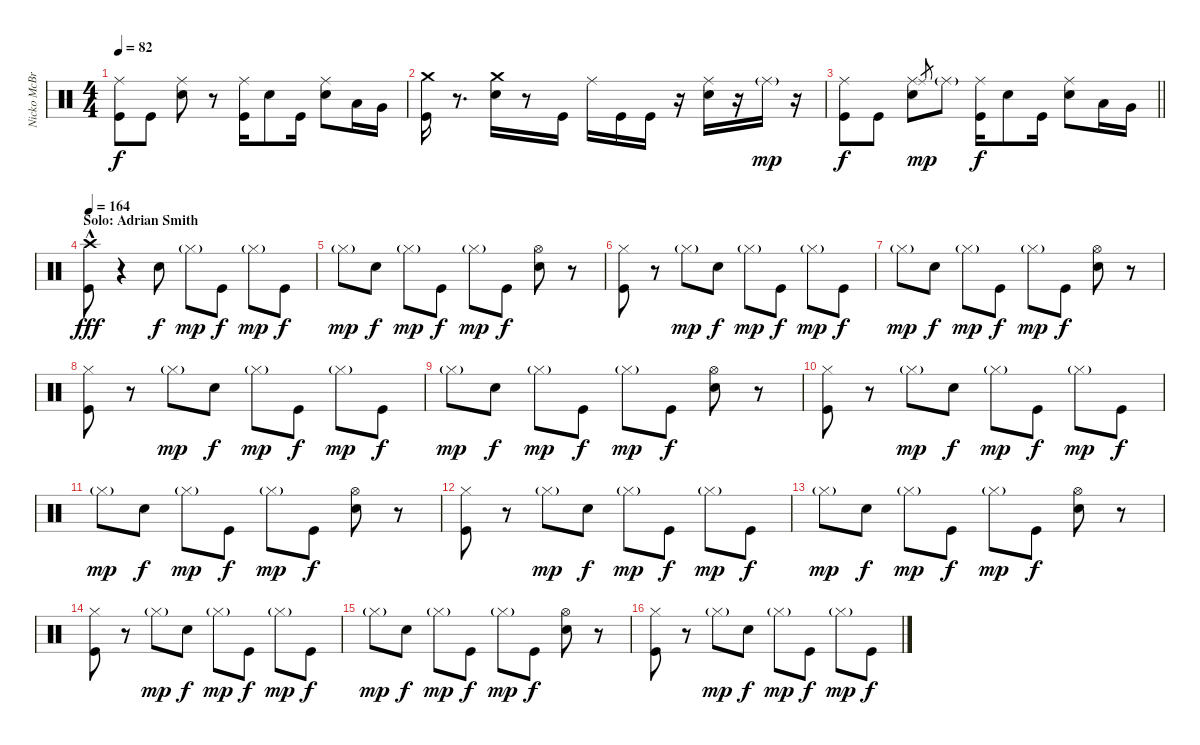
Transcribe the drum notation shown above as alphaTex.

\track ("Nicko McBrain" "Nicko McBr") {instrument percussion}
\staff {score}
\articulation defaults
\ts (4 4)
\tempo 82
\clef neutral
\ks c
("Ride (middle)" "Kick (hit)").8{dy f} "Kick (hit)".8 ("Ride (middle)" "Electric Snare (hit)").8 r.8 ("Ride (middle)" "Kick (hit)").16 "Electric Snare (hit)".8 "Kick (hit)".16 ("Ride (middle)" "Electric Snare (hit)").8 "Low Tom (hit)".16 "Very Low Tom (hit)".16 |
("Crash medium (hit)" "Kick (hit)").16 r.8{d} ("Crash medium (hit)" "Electric Snare (hit)").16 r.8 "Kick (hit)".16 "Ride (middle)".16 "Kick (hit)".16 "Kick (hit)".16 r.16 ("Ride (middle)" "Electric Snare (hit)").16 r.16 "Ride (middle)"{g}.16{dy mp} r.16 |
\barLineRight lightlight
("Ride (middle)" "Kick (hit)").8{dy f} "Kick (hit)".8 ("Ride (middle)" "Electric Snare (hit)").8 "Ride (middle)".8{gr dy mp} "Ride (middle)"{g}.8 ("Ride (middle)" "Kick (hit)").16{dy f} "Electric Snare (hit)".8 "Kick (hit)".16 ("Ride (middle)" "Electric Snare (hit)").8 "Low Tom (hit)".16 "Very Low Tom (hit)".16 |
\section ("" "Solo: Adrian Smith")
\tempo 164
("Crash high (hit)" "Kick (hit)"{hac}).8{dy fff} r.4 "Electric Snare (hit)".8{dy f} "Hi-Hat (closed)"{g}.8{dy mp} "Kick (hit)".8{dy f} "Hi-Hat (closed)"{g}.8{dy mp} "Kick (hit)".8{dy f} |
"Hi-Hat (closed)"{g}.8{dy mp} "Electric Snare (hit)".8{dy f} "Hi-Hat (closed)"{g}.8{dy mp} "Kick (hit)".8{dy f} "Hi-Hat (closed)"{g}.8{dy mp} "Kick (hit)".8{dy f} ("Hi-Hat (open)" "Electric Snare (hit)").8 r.8 |
("Hi-Hat (closed)" "Kick (hit)").8 r.8 "Hi-Hat (closed)"{g}.8{dy mp} "Electric Snare (hit)".8{dy f} "Hi-Hat (closed)"{g}.8{dy mp} "Kick (hit)".8{dy f} "Hi-Hat (closed)"{g}.8{dy mp} "Kick (hit)".8{dy f} |
"Hi-Hat (closed)"{g}.8{dy mp} "Electric Snare (hit)".8{dy f} "Hi-Hat (closed)"{g}.8{dy mp} "Kick (hit)".8{dy f} "Hi-Hat (closed)"{g}.8{dy mp} "Kick (hit)".8{dy f} ("Hi-Hat (open)" "Electric Snare (hit)").8 r.8 |
("Hi-Hat (closed)" "Kick (hit)").8 r.8 "Hi-Hat (closed)"{g}.8{dy mp} "Electric Snare (hit)".8{dy f} "Hi-Hat (closed)"{g}.8{dy mp} "Kick (hit)".8{dy f} "Hi-Hat (closed)"{g}.8{dy mp} "Kick (hit)".8{dy f} |
"Hi-Hat (closed)"{g}.8{dy mp} "Electric Snare (hit)".8{dy f} "Hi-Hat (closed)"{g}.8{dy mp} "Kick (hit)".8{dy f} "Hi-Hat (closed)"{g}.8{dy mp} "Kick (hit)".8{dy f} ("Hi-Hat (open)" "Electric Snare (hit)").8 r.8 |
("Hi-Hat (closed)" "Kick (hit)").8 r.8 "Hi-Hat (closed)"{g}.8{dy mp} "Electric Snare (hit)".8{dy f} "Hi-Hat (closed)"{g}.8{dy mp} "Kick (hit)".8{dy f} "Hi-Hat (closed)"{g}.8{dy mp} "Kick (hit)".8{dy f} |
"Hi-Hat (closed)"{g}.8{dy mp} "Electric Snare (hit)".8{dy f} "Hi-Hat (closed)"{g}.8{dy mp} "Kick (hit)".8{dy f} "Hi-Hat (closed)"{g}.8{dy mp} "Kick (hit)".8{dy f} ("Hi-Hat (open)" "Electric Snare (hit)").8 r.8 |
("Hi-Hat (closed)" "Kick (hit)").8 r.8 "Hi-Hat (closed)"{g}.8{dy mp} "Electric Snare (hit)".8{dy f} "Hi-Hat (closed)"{g}.8{dy mp} "Kick (hit)".8{dy f} "Hi-Hat (closed)"{g}.8{dy mp} "Kick (hit)".8{dy f} |
"Hi-Hat (closed)"{g}.8{dy mp} "Electric Snare (hit)".8{dy f} "Hi-Hat (closed)"{g}.8{dy mp} "Kick (hit)".8{dy f} "Hi-Hat (closed)"{g}.8{dy mp} "Kick (hit)".8{dy f} ("Hi-Hat (open)" "Electric Snare (hit)").8 r.8 |
("Hi-Hat (closed)" "Kick (hit)").8 r.8 "Hi-Hat (closed)"{g}.8{dy mp} "Electric Snare (hit)".8{dy f} "Hi-Hat (closed)"{g}.8{dy mp} "Kick (hit)".8{dy f} "Hi-Hat (closed)"{g}.8{dy mp} "Kick (hit)".8{dy f} |
"Hi-Hat (closed)"{g}.8{dy mp} "Electric Snare (hit)".8{dy f} "Hi-Hat (closed)"{g}.8{dy mp} "Kick (hit)".8{dy f} "Hi-Hat (closed)"{g}.8{dy mp} "Kick (hit)".8{dy f} ("Hi-Hat (open)" "Electric Snare (hit)").8 r.8 |
("Hi-Hat (closed)" "Kick (hit)").8 r.8 "Hi-Hat (closed)"{g}.8{dy mp} "Electric Snare (hit)".8{dy f} "Hi-Hat (closed)"{g}.8{dy mp} "Kick (hit)".8{dy f} "Hi-Hat (closed)"{g}.8{dy mp} "Kick (hit)".8{dy f}
